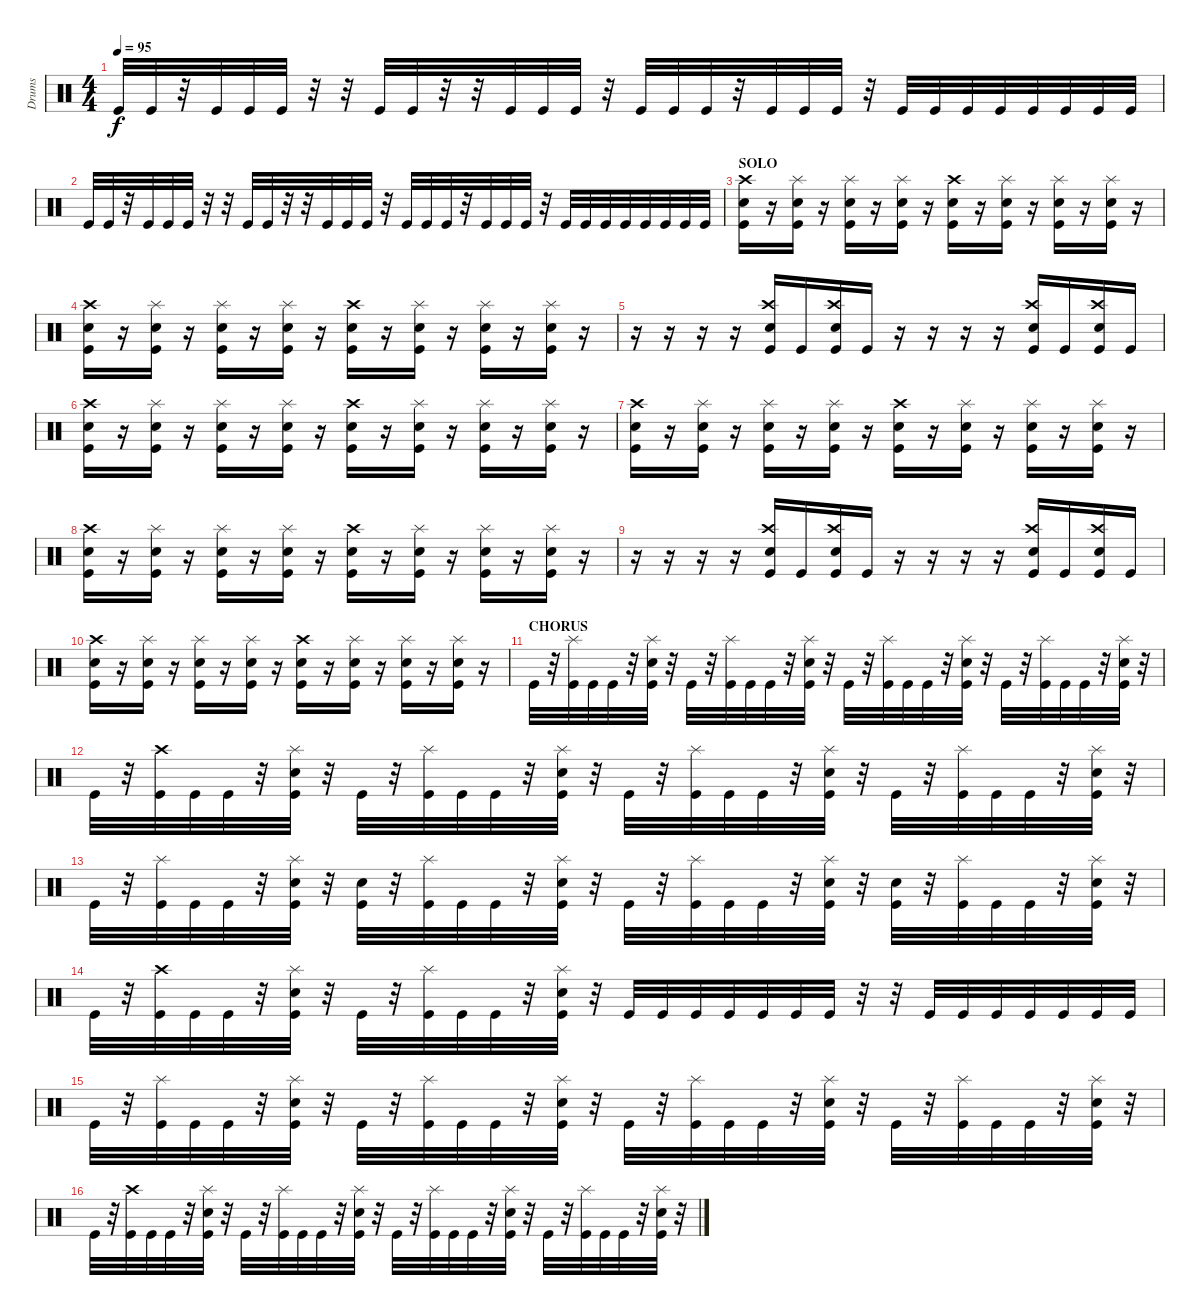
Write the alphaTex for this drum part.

\track ("Drums" "Drums") {instrument percussion}
\staff {score}
\articulation defaults
\ts (4 4)
\tempo 95
\clef neutral
\ks c "Kick (hit)".32{dy f} "Kick (hit)".32
r.32 "Kick (hit)".32 "Kick (hit)".32 "Kick (hit)".32 r.32 r.32 "Kick (hit)".32 "Kick (hit)".32 r.32 r.32 "Kick (hit)".32 "Kick (hit)".32 "Kick (hit)".32 r.32 "Kick (hit)".32 "Kick (hit)".32 "Kick (hit)".32 r.32 "Kick (hit)".32 "Kick (hit)".32 "Kick (hit)".32 r.32 "Kick (hit)".32 "Kick (hit)".32 "Kick (hit)".32 "Kick (hit)".32 "Kick (hit)".32 "Kick (hit)".32 "Kick (hit)".32 "Kick (hit)".32 |
"Kick (hit)".32 "Kick (hit)".32 r.32 "Kick (hit)".32 "Kick (hit)".32 "Kick (hit)".32 r.32 r.32 "Kick (hit)".32 "Kick (hit)".32 r.32 r.32 "Kick (hit)".32 "Kick (hit)".32 "Kick (hit)".32 r.32 "Kick (hit)".32 "Kick (hit)".32 "Kick (hit)".32 r.32 "Kick (hit)".32 "Kick (hit)".32 "Kick (hit)".32 r.32 "Kick (hit)".32 "Kick (hit)".32 "Kick (hit)".32 "Kick (hit)".32 "Kick (hit)".32 "Kick (hit)".32 "Kick (hit)".32 "Kick (hit)".32 |
\section ("" "SOLO")
("Crash high (hit)" "Snare (hit) 2" "Kick (hit)").16 r.16 ("Splash (hit)" "Snare (hit) 2" "Kick (hit)").16 r.16 ("Splash (hit)" "Snare (hit) 2" "Kick (hit)").16 r.16 ("Splash (hit)" "Snare (hit) 2" "Kick (hit)").16 r.16 ("Crash high (hit)" "Snare (hit) 2" "Kick (hit)").16 r.16 ("Splash (hit)" "Snare (hit) 2" "Kick (hit)").16 r.16 ("Splash (hit)" "Snare (hit) 2" "Kick (hit)").16 r.16 ("Splash (hit)" "Snare (hit) 2" "Kick (hit)").16 r.16 |
("Crash high (hit)" "Snare (hit) 2" "Kick (hit)").16 r.16 ("Splash (hit)" "Snare (hit) 2" "Kick (hit)").16 r.16 ("Splash (hit)" "Snare (hit) 2" "Kick (hit)").16 r.16 ("Splash (hit)" "Snare (hit) 2" "Kick (hit)").16 r.16 ("Crash high (hit)" "Snare (hit) 2" "Kick (hit)").16 r.16 ("Splash (hit)" "Snare (hit) 2" "Kick (hit)").16 r.16 ("Splash (hit)" "Snare (hit) 2" "Kick (hit)").16 r.16 ("Splash (hit)" "Snare (hit) 2" "Kick (hit)").16 r.16 |
r.16 r.16 r.16 r.16 ("Crash high (hit)" "Snare (hit) 2" "Kick (hit)").16 "Kick (hit)".16 ("Crash high (hit)" "Snare (hit) 2" "Kick (hit)").16 "Kick (hit)".16 r.16 r.16 r.16 r.16 ("Crash high (hit)" "Snare (hit) 2" "Kick (hit)").16 "Kick (hit)".16 ("Crash high (hit)" "Snare (hit) 2" "Kick (hit)").16 "Kick (hit)".16 |
("Crash high (hit)" "Snare (hit) 2" "Kick (hit)").16 r.16 ("Splash (hit)" "Snare (hit) 2" "Kick (hit)").16 r.16 ("Splash (hit)" "Snare (hit) 2" "Kick (hit)").16 r.16 ("Splash (hit)" "Snare (hit) 2" "Kick (hit)").16 r.16 ("Crash high (hit)" "Snare (hit) 2" "Kick (hit)").16 r.16 ("Splash (hit)" "Snare (hit) 2" "Kick (hit)").16 r.16 ("Splash (hit)" "Snare (hit) 2" "Kick (hit)").16 r.16 ("Splash (hit)" "Snare (hit) 2" "Kick (hit)").16 r.16 |
("Crash high (hit)" "Snare (hit) 2" "Kick (hit)").16 r.16 ("Splash (hit)" "Snare (hit) 2" "Kick (hit)").16 r.16 ("Splash (hit)" "Snare (hit) 2" "Kick (hit)").16 r.16 ("Splash (hit)" "Snare (hit) 2" "Kick (hit)").16 r.16 ("Crash high (hit)" "Snare (hit) 2" "Kick (hit)").16 r.16 ("Splash (hit)" "Snare (hit) 2" "Kick (hit)").16 r.16 ("Splash (hit)" "Snare (hit) 2" "Kick (hit)").16 r.16 ("Splash (hit)" "Snare (hit) 2" "Kick (hit)").16 r.16 |
("Crash high (hit)" "Snare (hit) 2" "Kick (hit)").16 r.16 ("Splash (hit)" "Snare (hit) 2" "Kick (hit)").16 r.16 ("Splash (hit)" "Snare (hit) 2" "Kick (hit)").16 r.16 ("Splash (hit)" "Snare (hit) 2" "Kick (hit)").16 r.16 ("Crash high (hit)" "Snare (hit) 2" "Kick (hit)").16 r.16 ("Splash (hit)" "Snare (hit) 2" "Kick (hit)").16 r.16 ("Splash (hit)" "Snare (hit) 2" "Kick (hit)").16 r.16 ("Splash (hit)" "Snare (hit) 2" "Kick (hit)").16 r.16 |
r.16 r.16 r.16 r.16 ("Crash high (hit)" "Snare (hit) 2" "Kick (hit)").16 "Kick (hit)".16 ("Crash high (hit)" "Snare (hit) 2" "Kick (hit)").16 "Kick (hit)".16 r.16 r.16 r.16 r.16 ("Crash high (hit)" "Snare (hit) 2" "Kick (hit)").16 "Kick (hit)".16 ("Crash high (hit)" "Snare (hit) 2" "Kick (hit)").16 "Kick (hit)".16 |
("Crash high (hit)" "Snare (hit) 2" "Kick (hit)").16 r.16 ("Splash (hit)" "Snare (hit) 2" "Kick (hit)").16 r.16 ("Splash (hit)" "Snare (hit) 2" "Kick (hit)").16 r.16 ("Splash (hit)" "Snare (hit) 2" "Kick (hit)").16 r.16 ("Crash high (hit)" "Snare (hit) 2" "Kick (hit)").16 r.16 ("Splash (hit)" "Snare (hit) 2" "Kick (hit)").16 r.16 ("Splash (hit)" "Snare (hit) 2" "Kick (hit)").16 r.16 ("Splash (hit)" "Snare (hit) 2" "Kick (hit)").16 r.16 |
\section ("" "CHORUS")
"Kick (hit)".32 r.32 ("Splash (hit)" "Kick (hit)").32 "Kick (hit)".32 "Kick (hit)".32 r.32 ("Splash (hit)" "Snare (hit) 2" "Kick (hit)").32 r.32 "Kick (hit)".32 r.32 ("Splash (hit)" "Kick (hit)").32 "Kick (hit)".32 "Kick (hit)".32 r.32 ("Splash (hit)" "Snare (hit) 2" "Kick (hit)").32 r.32 "Kick (hit)".32 r.32 ("Splash (hit)" "Kick (hit)").32 "Kick (hit)".32 "Kick (hit)".32 r.32 ("Splash (hit)" "Snare (hit) 2" "Kick (hit)").32 r.32 "Kick (hit)".32 r.32 ("Splash (hit)" "Kick (hit)").32 "Kick (hit)".32 "Kick (hit)".32 r.32 ("Splash (hit)" "Snare (hit) 2" "Kick (hit)").32 r.32 |
"Kick (hit)".32 r.32 ("Crash high (hit)" "Kick (hit)").32 "Kick (hit)".32 "Kick (hit)".32 r.32 ("Splash (hit)" "Snare (hit) 2" "Kick (hit)").32 r.32 "Kick (hit)".32 r.32 ("Splash (hit)" "Kick (hit)").32 "Kick (hit)".32 "Kick (hit)".32 r.32 ("Splash (hit)" "Snare (hit) 2" "Kick (hit)").32 r.32 "Kick (hit)".32 r.32 ("Splash (hit)" "Kick (hit)").32 "Kick (hit)".32 "Kick (hit)".32 r.32 ("Splash (hit)" "Snare (hit) 2" "Kick (hit)").32 r.32 "Kick (hit)".32 r.32 ("Splash (hit)" "Kick (hit)").32 "Kick (hit)".32 "Kick (hit)".32 r.32 ("Splash (hit)" "Snare (hit) 2" "Kick (hit)").32 r.32 |
"Kick (hit)".32 r.32 ("Splash (hit)" "Kick (hit)").32 "Kick (hit)".32 "Kick (hit)".32 r.32 ("Splash (hit)" "Snare (hit) 2" "Kick (hit)").32 r.32 ("Snare (hit) 2" "Kick (hit)").32 r.32 ("Splash (hit)" "Kick (hit)").32 "Kick (hit)".32 "Kick (hit)".32 r.32 ("Splash (hit)" "Snare (hit) 2" "Kick (hit)").32 r.32 "Kick (hit)".32 r.32 ("Splash (hit)" "Kick (hit)").32 "Kick (hit)".32 "Kick (hit)".32 r.32 ("Splash (hit)" "Snare (hit) 2" "Kick (hit)").32 r.32 ("Snare (hit) 2" "Kick (hit)").32 r.32 ("Splash (hit)" "Kick (hit)").32 "Kick (hit)".32 "Kick (hit)".32 r.32 ("Splash (hit)" "Snare (hit) 2" "Kick (hit)").32 r.32 |
"Kick (hit)".32 r.32 ("Crash high (hit)" "Kick (hit)").32 "Kick (hit)".32 "Kick (hit)".32 r.32 ("Splash (hit)" "Snare (hit) 2" "Kick (hit)").32 r.32 "Kick (hit)".32 r.32 ("Splash (hit)" "Kick (hit)").32 "Kick (hit)".32 "Kick (hit)".32 r.32 ("Splash (hit)" "Snare (hit) 2" "Kick (hit)").32 r.32 "Kick (hit)".32 "Kick (hit)".32 "Kick (hit)".32 "Kick (hit)".32 "Kick (hit)".32 "Kick (hit)".32 "Kick (hit)".32 r.32 r.32 "Kick (hit)".32 "Kick (hit)".32 "Kick (hit)".32 "Kick (hit)".32 "Kick (hit)".32 "Kick (hit)".32 "Kick (hit)".32 |
"Kick (hit)".32 r.32 ("Splash (hit)" "Kick (hit)").32 "Kick (hit)".32 "Kick (hit)".32 r.32 ("Splash (hit)" "Snare (hit) 2" "Kick (hit)").32 r.32 "Kick (hit)".32 r.32 ("Splash (hit)" "Kick (hit)").32 "Kick (hit)".32 "Kick (hit)".32 r.32 ("Splash (hit)" "Snare (hit) 2" "Kick (hit)").32 r.32 "Kick (hit)".32 r.32 ("Splash (hit)" "Kick (hit)").32 "Kick (hit)".32 "Kick (hit)".32 r.32 ("Splash (hit)" "Snare (hit) 2" "Kick (hit)").32 r.32 "Kick (hit)".32 r.32 ("Splash (hit)" "Kick (hit)").32 "Kick (hit)".32 "Kick (hit)".32 r.32 ("Splash (hit)" "Snare (hit) 2" "Kick (hit)").32 r.32 |
"Kick (hit)".32 r.32 ("Crash high (hit)" "Kick (hit)").32 "Kick (hit)".32 "Kick (hit)".32 r.32 ("Splash (hit)" "Snare (hit) 2" "Kick (hit)").32 r.32 "Kick (hit)".32 r.32 ("Splash (hit)" "Kick (hit)").32 "Kick (hit)".32 "Kick (hit)".32 r.32 ("Splash (hit)" "Snare (hit) 2" "Kick (hit)").32 r.32 "Kick (hit)".32 r.32 ("Splash (hit)" "Kick (hit)").32 "Kick (hit)".32 "Kick (hit)".32 r.32 ("Splash (hit)" "Snare (hit) 2" "Kick (hit)").32 r.32 "Kick (hit)".32 r.32 ("Splash (hit)" "Kick (hit)").32 "Kick (hit)".32 "Kick (hit)".32 r.32 ("Splash (hit)" "Snare (hit) 2" "Kick (hit)").32 r.32
